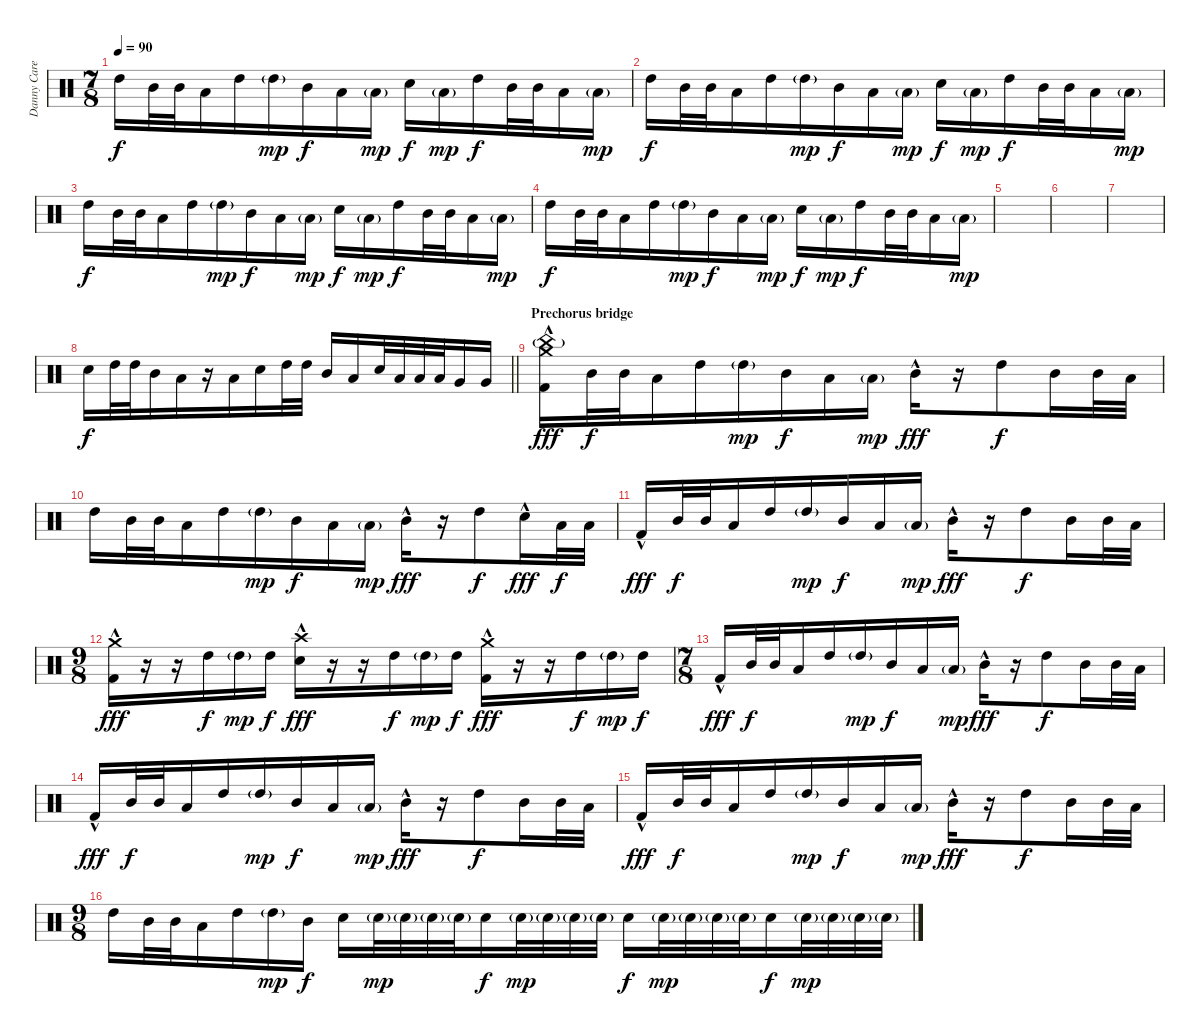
\track ("Danny Carey" "Danny Care") {instrument percussion}
\staff {score}
\articulation defaults
\ts (7 8)
\tempo 90
\clef neutral
\ks c "High Tom (hit)".16{dy f} "Mid Tom (hit)".32 "Mid Tom (hit)".32 "Low Tom (hit)".16 "High Tom (hit)".16 "High Tom (hit)"{g}.16{dy mp} "Mid Tom (hit)".16{dy f} "Low Tom (hit)".16 "Low Tom (hit)"{g}.16{dy mp} "Electric Snare (hit)".16{dy f} "Low Tom (hit)"{g}.16{dy mp} "High Tom (hit)".16{dy f} "Mid Tom (hit)".32 "Mid Tom (hit)".32 "Low Tom (hit)".16 "Low Tom (hit)"{g}.16{dy mp}
|
"High Tom (hit)".16{dy f} "Mid Tom (hit)".32 "Mid Tom (hit)".32 "Low Tom (hit)".16 "High Tom (hit)".16 "High Tom (hit)"{g}.16{dy mp} "Mid Tom (hit)".16{dy f} "Low Tom (hit)".16 "Low Tom (hit)"{g}.16{dy mp} "Electric Snare (hit)".16{dy f} "Low Tom (hit)"{g}.16{dy mp} "High Tom (hit)".16{dy f} "Mid Tom (hit)".32 "Mid Tom (hit)".32 "Low Tom (hit)".16 "Low Tom (hit)"{g}.16{dy mp} |
"High Tom (hit)".16{dy f} "Mid Tom (hit)".32 "Mid Tom (hit)".32 "Low Tom (hit)".16 "High Tom (hit)".16 "High Tom (hit)"{g}.16{dy mp} "Mid Tom (hit)".16{dy f} "Low Tom (hit)".16 "Low Tom (hit)"{g}.16{dy mp} "Electric Snare (hit)".16{dy f} "Low Tom (hit)"{g}.16{dy mp} "High Tom (hit)".16{dy f} "Mid Tom (hit)".32 "Mid Tom (hit)".32 "Low Tom (hit)".16 "Low Tom (hit)"{g}.16{dy mp} |
"High Tom (hit)".16{dy f} "Mid Tom (hit)".32 "Mid Tom (hit)".32 "Low Tom (hit)".16 "High Tom (hit)".16 "High Tom (hit)"{g}.16{dy mp} "Mid Tom (hit)".16{dy f} "Low Tom (hit)".16 "Low Tom (hit)"{g}.16{dy mp} "Electric Snare (hit)".16{dy f} "Low Tom (hit)"{g}.16{dy mp} "High Tom (hit)".16{dy f} "Mid Tom (hit)".32 "Mid Tom (hit)".32 "Low Tom (hit)".16 "Low Tom (hit)"{g}.16{dy mp} |
|
|
|
\barLineRight lightlight "Electric Snare (hit)".16{dy f} "High Tom (hit)".32 "High Tom (hit)".32 "Mid Tom (hit)".16 "Low Tom (hit)".16
r.16 "Low Tom (hit)".16 "Electric Snare (hit)".16 "High Tom (hit)".32 "High Tom (hit)".32 "Mid Tom (hit)".16 "Low Tom (hit)".16 "Electric Snare (hit)".32 "Low Tom (hit)".32 "Low Tom (hit)".32 "Low Tom (hit)".32 "Very Low Tom (hit)".16 "Very Low Tom (hit)".16 |
\section ("" "Prechorus bridge")
("Crash medium (hit)" "China (hit)"{g} "Kick (hit) 2"{hac}).16{dy fff} "Mid Tom (hit)".32{dy f} "Mid Tom (hit)".32 "Low Tom (hit)".16 "High Tom (hit)".16 "High Tom (hit)"{g}.16{dy mp} "Mid Tom (hit)".16{dy f} "Low Tom (hit)".16 "Low Tom (hit)"{g}.16{dy mp} "Mid Tom (hit)"{hac}.16{dy fff} r.16 "High Tom (hit)".8{dy f} "Mid Tom (hit)".16 "Mid Tom (hit)".32 "Low Tom (hit)".32 |
"High Tom (hit)".16 "Mid Tom (hit)".32 "Mid Tom (hit)".32 "Low Tom (hit)".16 "High Tom (hit)".16 "High Tom (hit)"{g}.16{dy mp} "Mid Tom (hit)".16{dy f} "Low Tom (hit)".16 "Low Tom (hit)"{g}.16{dy mp} "Mid Tom (hit)"{hac}.16{dy fff} r.16 "High Tom (hit)".8{dy f} "Electric Snare (hit)"{hac}.16{dy fff} "Low Tom (hit)".32{dy f} "Low Tom (hit)".32 |
"Kick (hit) 2"{hac}.16{dy fff} "Mid Tom (hit)".32{dy f} "Mid Tom (hit)".32 "Low Tom (hit)".16 "High Tom (hit)".16 "High Tom (hit)"{g}.16{dy mp} "Mid Tom (hit)".16{dy f} "Low Tom (hit)".16 "Low Tom (hit)"{g}.16{dy mp} "Mid Tom (hit)"{hac}.16{dy fff} r.16 "High Tom (hit)".8{dy f} "Mid Tom (hit)".16 "Mid Tom (hit)".32 "Low Tom (hit)".32 |
\ts (9 8)
("Crash medium (hit)" "Kick (hit) 2"{hac}).16{dy fff} r.16 r.16 "High Tom (hit)".16{dy f} "High Tom (hit)"{g}.16{dy mp} "High Tom (hit)".16{dy f} ("Crash high (hit)" "Electric Snare (hit)"{hac}).16{dy fff} r.16 r.16 "High Tom (hit)".16{dy f} "High Tom (hit)"{g}.16{dy mp} "High Tom (hit)".16{dy f} ("Crash medium (hit)" "Kick (hit) 2"{hac}).16{dy fff} r.16 r.16 "High Tom (hit)".16{dy f} "High Tom (hit)"{g}.16{dy mp} "High Tom (hit)".16{dy f} |
\ts (7 8)
"Kick (hit) 2"{hac}.16{dy fff} "Mid Tom (hit)".32{dy f} "Mid Tom (hit)".32 "Low Tom (hit)".16 "High Tom (hit)".16 "High Tom (hit)"{g}.16{dy mp} "Mid Tom (hit)".16{dy f} "Low Tom (hit)".16 "Low Tom (hit)"{g}.16{dy mp} "Mid Tom (hit)"{hac}.16{dy fff} r.16 "High Tom (hit)".8{dy f} "Mid Tom (hit)".16 "Mid Tom (hit)".32 "Low Tom (hit)".32 |
"Kick (hit) 2"{hac}.16{dy fff} "Mid Tom (hit)".32{dy f} "Mid Tom (hit)".32 "Low Tom (hit)".16 "High Tom (hit)".16 "High Tom (hit)"{g}.16{dy mp} "Mid Tom (hit)".16{dy f} "Low Tom (hit)".16 "Low Tom (hit)"{g}.16{dy mp} "Mid Tom (hit)"{hac}.16{dy fff} r.16 "High Tom (hit)".8{dy f} "Mid Tom (hit)".16 "Mid Tom (hit)".32 "Low Tom (hit)".32 |
"Kick (hit) 2"{hac}.16{dy fff} "Mid Tom (hit)".32{dy f} "Mid Tom (hit)".32 "Low Tom (hit)".16 "High Tom (hit)".16 "High Tom (hit)"{g}.16{dy mp} "Mid Tom (hit)".16{dy f} "Low Tom (hit)".16 "Low Tom (hit)"{g}.16{dy mp} "Mid Tom (hit)"{hac}.16{dy fff} r.16 "High Tom (hit)".8{dy f} "Mid Tom (hit)".16 "Mid Tom (hit)".32 "Low Tom (hit)".32 |
\ts (9 8)
"High Tom (hit)".16 "Mid Tom (hit)".32 "Mid Tom (hit)".32 "Low Tom (hit)".16 "High Tom (hit)".16 "High Tom (hit)"{g}.16{dy mp} "Mid Tom (hit)".16{dy f} "Electric Snare (hit)".16 "Electric Snare (hit)"{g}.32{dy mp} "Electric Snare (hit)"{g}.32 "Electric Snare (hit)"{g}.32 "Electric Snare (hit)"{g}.32 "Electric Snare (hit)".16{dy f} "Electric Snare (hit)"{g}.32{dy mp} "Electric Snare (hit)"{g}.32 "Electric Snare (hit)"{g}.32 "Electric Snare (hit)"{g}.32 "Electric Snare (hit)".16{dy f} "Electric Snare (hit)"{g}.32{dy mp} "Electric Snare (hit)"{g}.32 "Electric Snare (hit)"{g}.32 "Electric Snare (hit)"{g}.32 "Electric Snare (hit)".16{dy f} "Electric Snare (hit)"{g}.32{dy mp} "Electric Snare (hit)"{g}.32 "Electric Snare (hit)"{g}.32 "Electric Snare (hit)"{g}.32
